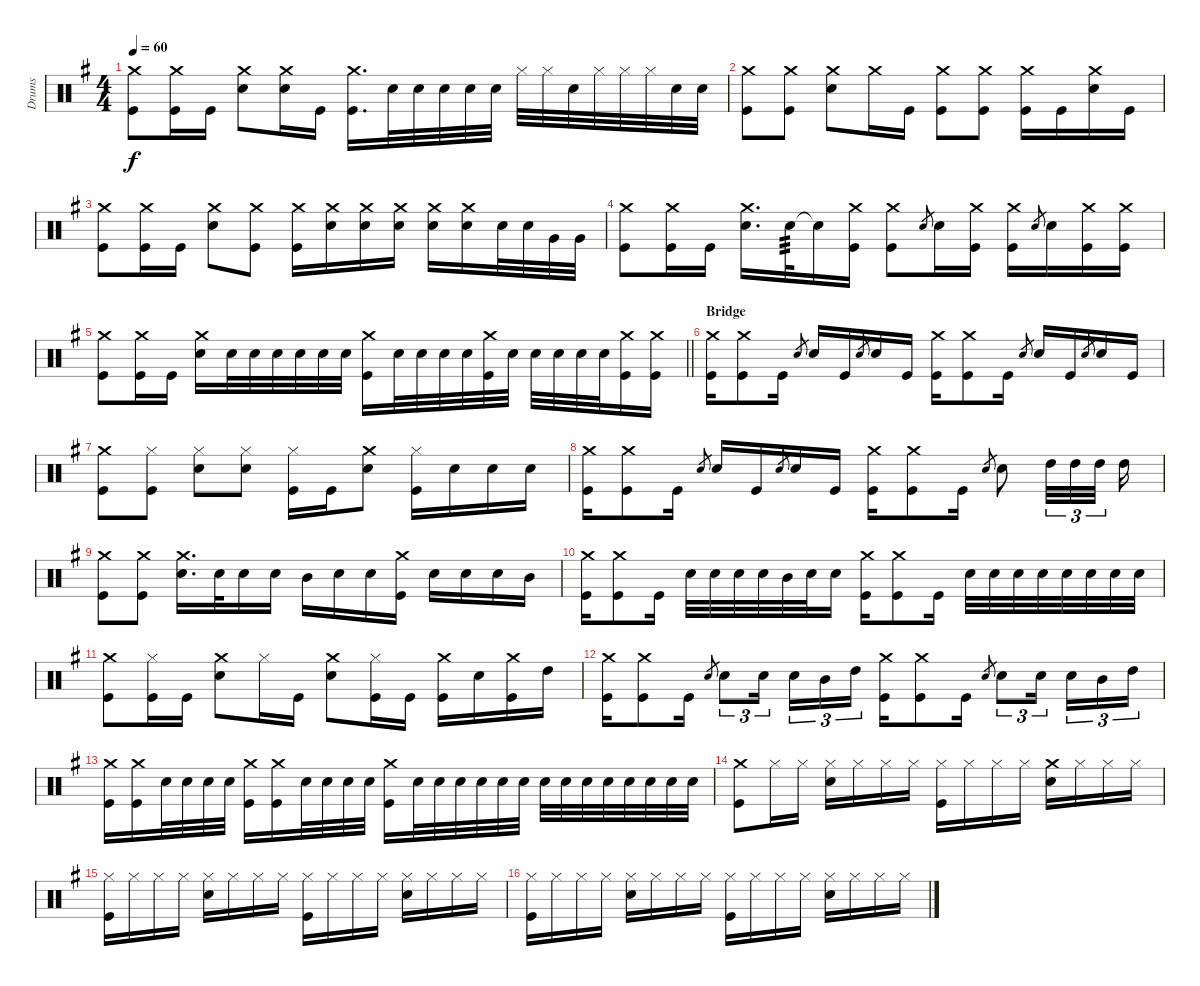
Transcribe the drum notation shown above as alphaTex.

\track ("Drums" "Drums") {instrument percussion}
\staff {score}
\articulation defaults
\ts (4 4)
\tempo 60
\clef neutral
\ks g
("Kick (hit)" "Crash medium (hit)").8{dy f} ("Kick (hit)" "Crash medium (hit)").16 "Kick (hit)".16 ("Electric Snare (hit)" "Crash medium (hit)").8 ("Electric Snare (hit)" "Crash medium (hit)").16 "Kick (hit)".16 ("Kick (hit)" "Crash medium (hit)").16{d} "Electric Snare (hit)".32 "Electric Snare (hit)".32 "Electric Snare (hit)".32 "Electric Snare (hit)".32 "Electric Snare (hit)".32 "Hi-Hat (closed)".32 "Hi-Hat (closed)".32 "Electric Snare (hit)".32 "Hi-Hat (closed)".32 "Hi-Hat (closed)".32 "Hi-Hat (closed)".32 "Electric Snare (hit)".32 "Electric Snare (hit)".32 |
("Kick (hit)" "Crash medium (hit)").8 ("Kick (hit)" "Crash medium (hit)").8 ("Electric Snare (hit)" "Crash medium (hit)").8 "Crash medium (hit)".16 "Kick (hit)".16 ("Kick (hit)" "Crash medium (hit)").8 ("Kick (hit)" "Crash medium (hit)").8 ("Kick (hit)" "Crash medium (hit)").16 "Kick (hit)".16 ("Electric Snare (hit)" "Crash medium (hit)").16 "Kick (hit)".16 |
("Kick (hit)" "Crash medium (hit)").8 ("Kick (hit)" "Crash medium (hit)").16 "Kick (hit)".16 ("Electric Snare (hit)" "Crash medium (hit)").8 ("Kick (hit)" "Crash medium (hit)").8 ("Kick (hit)" "Crash medium (hit)").16 ("Electric Snare (hit)" "Crash medium (hit)").16 ("Electric Snare (hit)" "Crash medium (hit)").16 ("Electric Snare (hit)" "Crash medium (hit)").16 ("Electric Snare (hit)" "Crash medium (hit)").16 ("Electric Snare (hit)" "Crash medium (hit)").16 "Electric Snare (hit)".32 "Electric Snare (hit)".32 "Very Low Tom (hit)".32 "Very Low Tom (hit)".32 |
("Kick (hit)" "Crash medium (hit)").8 ("Kick (hit)" "Crash medium (hit)").16 "Kick (hit)".16 ("Electric Snare (hit)" "Crash medium (hit)").16{d} "Electric Snare (hit)".32{tp 3} "Snare (hit)"{t}.16 ("Kick (hit)" "Crash medium (hit)").16 ("Kick (hit)" "Crash medium (hit)").8 "Electric Snare (hit)".8{gr} "Electric Snare (hit)".16 ("Kick (hit)" "Crash medium (hit)").16 ("Kick (hit)" "Crash medium (hit)").16 "Electric Snare (hit)".8{gr} "Electric Snare (hit)".16 ("Kick (hit)" "Crash medium (hit)").16 ("Kick (hit)" "Crash medium (hit)").16 |
\barLineRight lightlight
("Kick (hit)" "Crash medium (hit)").8 ("Kick (hit)" "Crash medium (hit)").16 "Kick (hit)".16 ("Electric Snare (hit)" "Crash medium (hit)").16 "Electric Snare (hit)".32 "Electric Snare (hit)".32 "Electric Snare (hit)".32 "Electric Snare (hit)".32 "Electric Snare (hit)".32 "Electric Snare (hit)".32 ("Kick (hit)" "Crash medium (hit)").16 "Electric Snare (hit)".32 "Electric Snare (hit)".32 "Electric Snare (hit)".32 "Electric Snare (hit)".32 ("Kick (hit)" "Crash medium (hit)").32 "Electric Snare (hit)".32 "Electric Snare (hit)".32 "Electric Snare (hit)".32 "Electric Snare (hit)".32 "Electric Snare (hit)".32 ("Kick (hit)" "Crash medium (hit)").16 ("Kick (hit)" "Crash medium (hit)").16 |
\section ("" "Bridge")
("Kick (hit)" "Crash medium (hit)").16 ("Kick (hit)" "Crash medium (hit)").8 "Kick (hit)".16 "Electric Snare (hit)".8{gr} "Electric Snare (hit)".16 "Kick (hit)".16 "Electric Snare (hit)".8{gr} "Electric Snare (hit)".16 "Kick (hit)".16 ("Kick (hit)" "Crash medium (hit)").16 ("Kick (hit)" "Crash medium (hit)").8 "Kick (hit)".16 "Electric Snare (hit)".8{gr} "Electric Snare (hit)".16 "Kick (hit)".16 "Electric Snare (hit)".8{gr} "Electric Snare (hit)".16 "Kick (hit)".16 |
("Kick (hit)" "Crash medium (hit)").8 ("Kick (hit)" "Hi-Hat (closed)").8 ("Electric Snare (hit)" "Hi-Hat (closed)").8 ("Electric Snare (hit)" "Hi-Hat (closed)").8 ("Kick (hit)" "Hi-Hat (closed)").16 "Kick (hit)".16 ("Electric Snare (hit)" "Crash medium (hit)").8 ("Kick (hit)" "Hi-Hat (closed)").16 "Electric Snare (hit)".16 "Electric Snare (hit)".16 "Electric Snare (hit)".16 |
("Kick (hit)" "Crash medium (hit)").16 ("Kick (hit)" "Crash medium (hit)").8 "Kick (hit)".16 "Electric Snare (hit)".8{gr} "Electric Snare (hit)".16 "Kick (hit)".16 "Electric Snare (hit)".8{gr} "Electric Snare (hit)".16 "Kick (hit)".16 ("Kick (hit)" "Crash medium (hit)").16 ("Kick (hit)" "Crash medium (hit)").8 "Kick (hit)".16 "Electric Snare (hit)".8{gr} "Electric Snare (hit)".8 "High Tom (hit)".32{tu (3 2)} "High Tom (hit)".32{tu (3 2)} "High Tom (hit)".32{tu (3 2) beam splitsecondary} "High Tom (hit)".16 |
("Kick (hit)" "Crash medium (hit)").8 ("Kick (hit)" "Crash medium (hit)").8 ("Electric Snare (hit)" "Crash medium (hit)").16{d} "Electric Snare (hit)".32 "Electric Snare (hit)".16 "Electric Snare (hit)".16 "Mid Tom (hit)".16 "Electric Snare (hit)".16 "Electric Snare (hit)".16 ("Kick (hit)" "Crash medium (hit)").16 "Electric Snare (hit)".16 "Electric Snare (hit)".16 "Electric Snare (hit)".16 "Mid Tom (hit)".16 |
("Kick (hit)" "Crash medium (hit)").16 ("Kick (hit)" "Crash medium (hit)").8 "Kick (hit)".16 "Electric Snare (hit)".32 "Electric Snare (hit)".32 "Electric Snare (hit)".32 "Electric Snare (hit)".32 "Mid Tom (hit)".32 "Electric Snare (hit)".32 "Electric Snare (hit)".16 ("Kick (hit)" "Crash medium (hit)").16 ("Kick (hit)" "Crash medium (hit)").8 "Kick (hit)".16 "Electric Snare (hit)".32 "Electric Snare (hit)".32 "Electric Snare (hit)".32 "Electric Snare (hit)".32 "Electric Snare (hit)".32 "Electric Snare (hit)".32 "Electric Snare (hit)".32 "Electric Snare (hit)".32 |
("Kick (hit)" "Crash medium (hit)").8 ("Kick (hit)" "Hi-Hat (closed)").16 "Kick (hit)".16 ("Electric Snare (hit)" "Crash medium (hit)").8 "Hi-Hat (closed)".16 "Kick (hit)".16 ("Electric Snare (hit)" "Crash medium (hit)").8 ("Kick (hit)" "Hi-Hat (closed)").16 "Kick (hit)".16 ("Kick (hit)" "Crash medium (hit)").16 "Electric Snare (hit)".16 ("Kick (hit)" "Crash medium (hit)").16 "High Tom (hit)".16 |
("Kick (hit)" "Crash medium (hit)").16 ("Kick (hit)" "Crash medium (hit)").8 "Kick (hit)".16 "Electric Snare (hit)".8{gr} "Electric Snare (hit)".8{tu (3 2)} "Electric Snare (hit)".16{tu (3 2) beam splitsecondary} "Electric Snare (hit)".16{tu (3 2)} "Mid Tom (hit)".16{tu (3 2)} "High Tom (hit)".16{tu (3 2)} ("Kick (hit)" "Crash medium (hit)").16 ("Kick (hit)" "Crash medium (hit)").8 "Kick (hit)".16 "Electric Snare (hit)".8{gr} "Electric Snare (hit)".8{tu (3 2)} "Electric Snare (hit)".16{tu (3 2) beam splitsecondary} "Electric Snare (hit)".16{tu (3 2)} "Mid Tom (hit)".16{tu (3 2)} "High Tom (hit)".16{tu (3 2)} |
("Kick (hit)" "Crash medium (hit)").16 ("Kick (hit)" "Crash medium (hit)").16 "Electric Snare (hit)".32 "Electric Snare (hit)".32 "Electric Snare (hit)".32 "Electric Snare (hit)".32 ("Kick (hit)" "Crash medium (hit)").16 ("Kick (hit)" "Crash medium (hit)").16 "Electric Snare (hit)".32 "Electric Snare (hit)".32 "Electric Snare (hit)".32 "Electric Snare (hit)".32 ("Kick (hit)" "Crash medium (hit)").16 "Electric Snare (hit)".32 "Electric Snare (hit)".32 "Electric Snare (hit)".32 "Electric Snare (hit)".32 "Electric Snare (hit)".32 "Electric Snare (hit)".32 "Electric Snare (hit)".32 "Electric Snare (hit)".32 "Electric Snare (hit)".32 "Electric Snare (hit)".32 "Electric Snare (hit)".32 "Electric Snare (hit)".32 "Electric Snare (hit)".32 "Electric Snare (hit)".32 |
("Kick (hit)" "Crash medium (hit)").8 "Hi-Hat (closed)".16 "Hi-Hat (closed)".16 ("Electric Snare (hit)" "Hi-Hat (closed)").16 "Hi-Hat (closed)".16 "Hi-Hat (closed)".16 "Hi-Hat (closed)".16 ("Kick (hit)" "Hi-Hat (closed)").16 "Hi-Hat (closed)".16 "Hi-Hat (closed)".16 "Hi-Hat (closed)".16 ("Electric Snare (hit)" "Crash medium (hit)").16 "Hi-Hat (closed)".16 "Hi-Hat (closed)".16 "Hi-Hat (closed)".16 |
("Kick (hit)" "Hi-Hat (closed)").16 "Hi-Hat (closed)".16 "Hi-Hat (closed)".16 "Hi-Hat (closed)".16 ("Electric Snare (hit)" "Hi-Hat (closed)").16 "Hi-Hat (closed)".16 "Hi-Hat (closed)".16 "Hi-Hat (closed)".16 ("Kick (hit)" "Hi-Hat (closed)").16 "Hi-Hat (closed)".16 "Hi-Hat (closed)".16 "Hi-Hat (closed)".16 ("Electric Snare (hit)" "Hi-Hat (closed)").16 "Hi-Hat (closed)".16 "Hi-Hat (closed)".16 "Hi-Hat (closed)".16 |
("Kick (hit)" "Hi-Hat (closed)").16 "Hi-Hat (closed)".16 "Hi-Hat (closed)".16 "Hi-Hat (closed)".16 ("Electric Snare (hit)" "Hi-Hat (closed)").16 "Hi-Hat (closed)".16 "Hi-Hat (closed)".16 "Hi-Hat (closed)".16 ("Kick (hit)" "Hi-Hat (closed)").16 "Hi-Hat (closed)".16 "Hi-Hat (closed)".16 "Hi-Hat (closed)".16 ("Electric Snare (hit)" "Hi-Hat (closed)").16 "Hi-Hat (closed)".16 "Hi-Hat (closed)".16 "Hi-Hat (closed)".16
